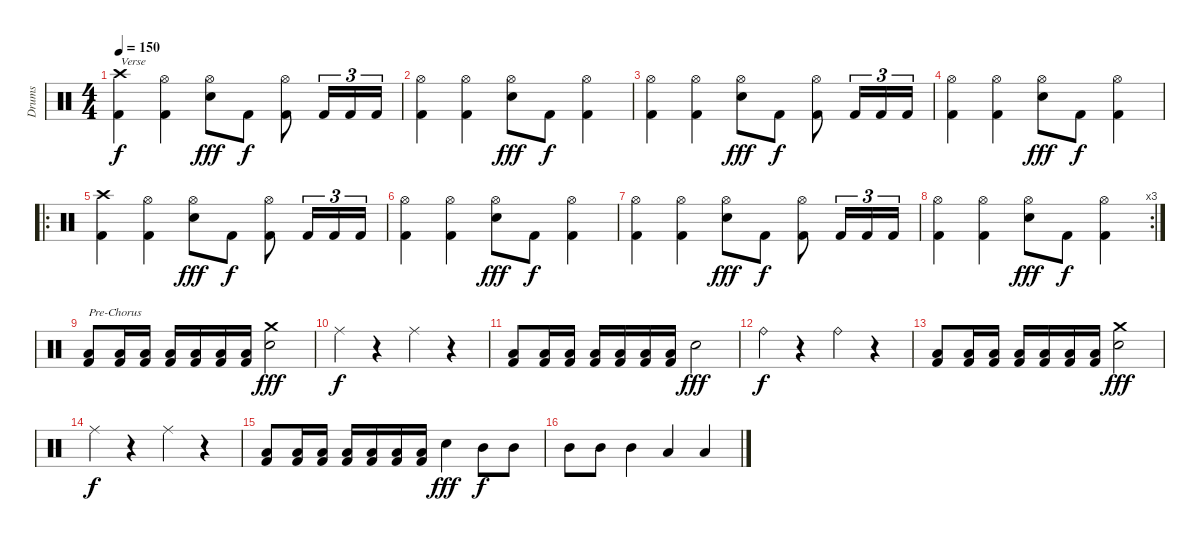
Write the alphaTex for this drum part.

\track ("Drums" "Drums") {instrument percussion}
\staff {score}
\articulation defaults
\ts (4 4)
\tempo 150
\clef neutral
\ks c
("Crash high (hit)" "Kick (hit) 2").4{txt "Verse" dy f} ("Hi-Hat (open)" "Kick (hit) 2").4 ("Hi-Hat (open)" "Snare (hit) 2").8{dy fff} "Kick (hit) 2".8{dy f} ("Hi-Hat (open)" "Kick (hit) 2").8 "Kick (hit) 2".16{tu (3 2)} "Kick (hit) 2".16{tu (3 2)} "Kick (hit) 2".16{tu (3 2)} |
("Hi-Hat (open)" "Kick (hit) 2").4 ("Hi-Hat (open)" "Kick (hit) 2").4 ("Hi-Hat (open)" "Snare (hit) 2").8{dy fff} "Kick (hit) 2".8{dy f} ("Hi-Hat (open)" "Kick (hit) 2").4 |
("Hi-Hat (open)" "Kick (hit) 2").4 ("Hi-Hat (open)" "Kick (hit) 2").4 ("Hi-Hat (open)" "Snare (hit) 2").8{dy fff} "Kick (hit) 2".8{dy f} ("Hi-Hat (open)" "Kick (hit) 2").8 "Kick (hit) 2".16{tu (3 2)} "Kick (hit) 2".16{tu (3 2)} "Kick (hit) 2".16{tu (3 2)} |
("Hi-Hat (open)" "Kick (hit) 2").4 ("Hi-Hat (open)" "Kick (hit) 2").4 ("Hi-Hat (open)" "Snare (hit) 2").8{dy fff} "Kick (hit) 2".8{dy f} ("Hi-Hat (open)" "Kick (hit) 2").4 |
\ro
("Crash high (hit)" "Kick (hit) 2").4 ("Hi-Hat (open)" "Kick (hit) 2").4 ("Hi-Hat (open)" "Snare (hit) 2").8{dy fff} "Kick (hit) 2".8{dy f} ("Hi-Hat (open)" "Kick (hit) 2").8 "Kick (hit) 2".16{tu (3 2)} "Kick (hit) 2".16{tu (3 2)} "Kick (hit) 2".16{tu (3 2)} |
("Hi-Hat (open)" "Kick (hit) 2").4 ("Hi-Hat (open)" "Kick (hit) 2").4 ("Hi-Hat (open)" "Snare (hit) 2").8{dy fff} "Kick (hit) 2".8{dy f} ("Hi-Hat (open)" "Kick (hit) 2").4 |
("Hi-Hat (open)" "Kick (hit) 2").4 ("Hi-Hat (open)" "Kick (hit) 2").4 ("Hi-Hat (open)" "Snare (hit) 2").8{dy fff} "Kick (hit) 2".8{dy f} ("Hi-Hat (open)" "Kick (hit) 2").8 "Kick (hit) 2".16{tu (3 2)} "Kick (hit) 2".16{tu (3 2)} "Kick (hit) 2".16{tu (3 2)} |
\rc 3
("Hi-Hat (open)" "Kick (hit) 2").4 ("Hi-Hat (open)" "Kick (hit) 2").4 ("Hi-Hat (open)" "Snare (hit) 2").8{dy fff} "Kick (hit) 2".8{dy f} ("Hi-Hat (open)" "Kick (hit) 2").4 |
("Low Floor Tom (hit)" "Kick (hit) 2").8{txt "Pre-Chorus"} ("Low Floor Tom (hit)" "Kick (hit) 2").16 ("Low Floor Tom (hit)" "Kick (hit) 2").16 ("Low Floor Tom (hit)" "Kick (hit) 2").16 ("Low Floor Tom (hit)" "Kick (hit) 2").16 ("Low Floor Tom (hit)" "Kick (hit) 2").16 ("Low Floor Tom (hit)" "Kick (hit) 2").16 ("Crash medium (hit)" "Snare (hit) 2").2{dy fff} |
"Ride (middle)".4{dy f} r.4 "Ride (middle)".4 r.4 |
("Low Floor Tom (hit)" "Kick (hit) 2").8 ("Low Floor Tom (hit)" "Kick (hit) 2").16 ("Low Floor Tom (hit)" "Kick (hit) 2").16 ("Low Floor Tom (hit)" "Kick (hit) 2").16 ("Low Floor Tom (hit)" "Kick (hit) 2").16 ("Low Floor Tom (hit)" "Kick (hit) 2").16 ("Low Floor Tom (hit)" "Kick (hit) 2").16 "Snare (hit) 2".2{dy fff} |
"Ride (bell)".4{dy f} r.4 "Ride (bell)".4 r.4 |
("Low Floor Tom (hit)" "Kick (hit) 2").8 ("Low Floor Tom (hit)" "Kick (hit) 2").16 ("Low Floor Tom (hit)" "Kick (hit) 2").16 ("Low Floor Tom (hit)" "Kick (hit) 2").16 ("Low Floor Tom (hit)" "Kick (hit) 2").16 ("Low Floor Tom (hit)" "Kick (hit) 2").16 ("Low Floor Tom (hit)" "Kick (hit) 2").16 ("Crash medium (hit)" "Snare (hit) 2").2{dy fff} |
"Ride (middle)".4{dy f} r.4 "Ride (middle)".4 r.4 |
("Low Floor Tom (hit)" "Kick (hit) 2").8 ("Low Floor Tom (hit)" "Kick (hit) 2").16 ("Low Floor Tom (hit)" "Kick (hit) 2").16 ("Low Floor Tom (hit)" "Kick (hit) 2").16 ("Low Floor Tom (hit)" "Kick (hit) 2").16 ("Low Floor Tom (hit)" "Kick (hit) 2").16 ("Low Floor Tom (hit)" "Kick (hit) 2").16 "Snare (hit) 2".4{dy fff} "Mid Tom (hit)".8{dy f} "Mid Tom (hit)".8 |
"Mid Tom (hit)".8 "Mid Tom (hit)".8 "Mid Tom (hit)".4 "Low Tom (hit)".4 "Low Floor Tom (hit)".4
